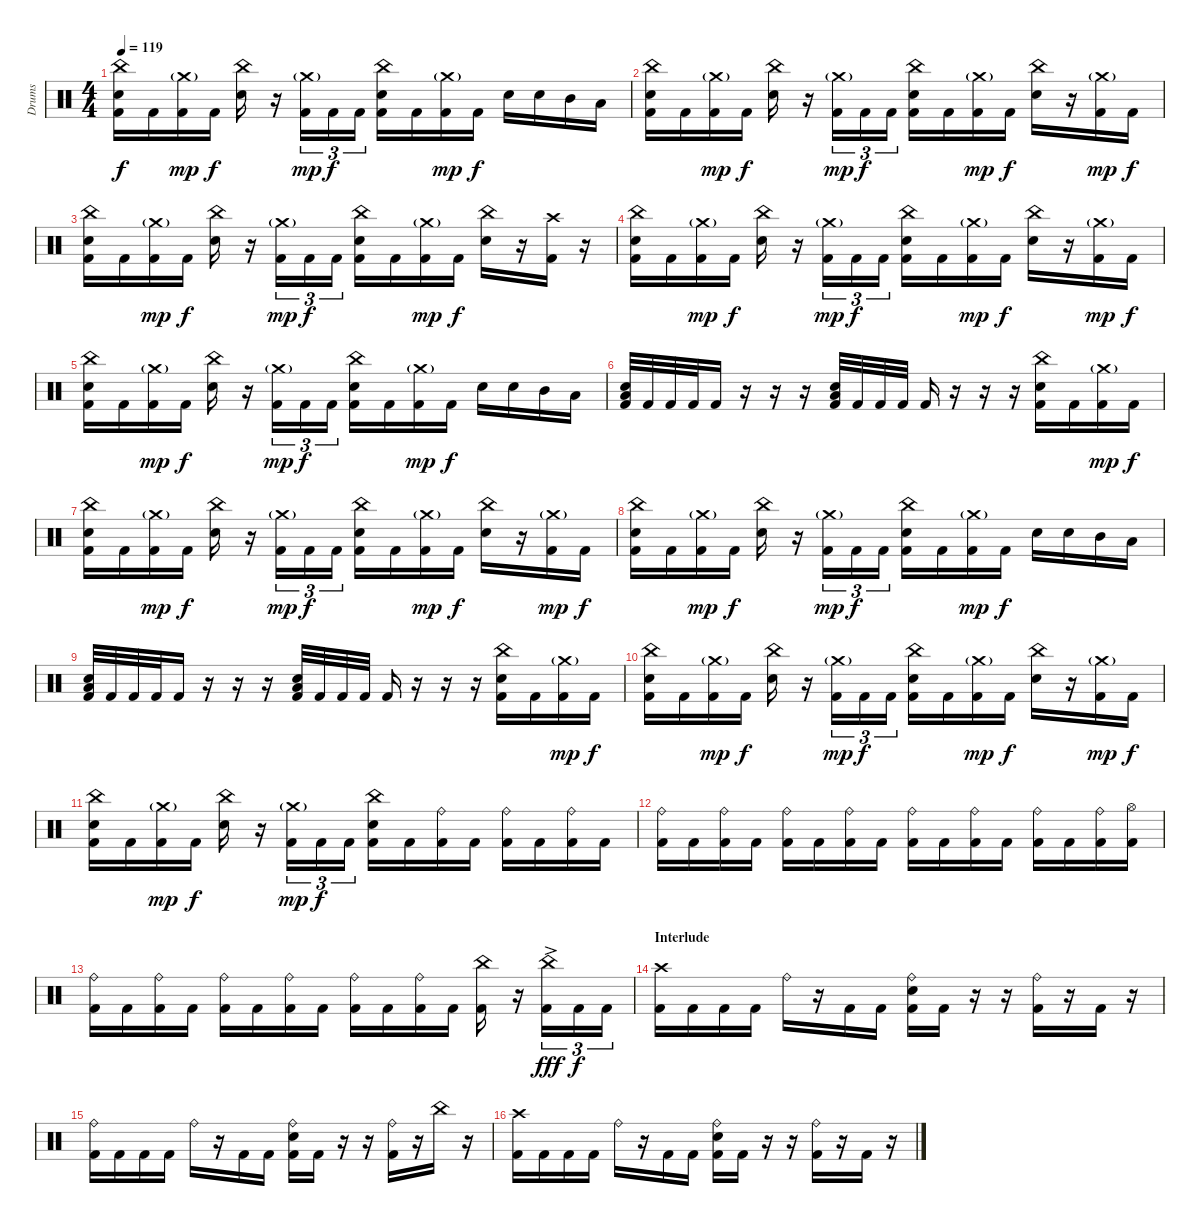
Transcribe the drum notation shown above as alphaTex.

\track ("Drums" "Drums") {instrument percussion}
\staff {score}
\articulation defaults
\ts (4 4)
\tempo 119
\clef neutral
\ks c
("China (hit)" "Electric Snare (hit)" "Kick (hit) 2").16{dy f} "Kick (hit) 2".16 ("Crash medium (hit)"{g} "Kick (hit) 2").16{dy mp} "Kick (hit) 2".16{dy f} ("China (hit)" "Electric Snare (hit)").16 r.16 ("Crash medium (hit)"{g} "Kick (hit) 2").16{tu (3 2) dy mp} "Kick (hit) 2".16{tu (3 2) dy f} "Kick (hit) 2".16{tu (3 2)} ("China (hit)" "Electric Snare (hit)" "Kick (hit) 2").16 "Kick (hit) 2".16 ("Crash medium (hit)"{g} "Kick (hit) 2").16{dy mp} "Kick (hit) 2".16{dy f} "Electric Snare (hit)".16 "Electric Snare (hit)".16 "Mid Tom (hit)".16 "Low Tom (hit)".16 |
("China (hit)" "Electric Snare (hit)" "Kick (hit) 2").16 "Kick (hit) 2".16 ("Crash medium (hit)"{g} "Kick (hit) 2").16{dy mp} "Kick (hit) 2".16{dy f} ("China (hit)" "Electric Snare (hit)").16 r.16 ("Crash medium (hit)"{g} "Kick (hit) 2").16{tu (3 2) dy mp} "Kick (hit) 2".16{tu (3 2) dy f} "Kick (hit) 2".16{tu (3 2)} ("China (hit)" "Electric Snare (hit)" "Kick (hit) 2").16 "Kick (hit) 2".16 ("Crash medium (hit)"{g} "Kick (hit) 2").16{dy mp} "Kick (hit) 2".16{dy f} ("China (hit)" "Electric Snare (hit)").16 r.16 ("Crash medium (hit)"{g} "Kick (hit) 2").16{dy mp} "Kick (hit) 2".16{dy f} |
("China (hit)" "Electric Snare (hit)" "Kick (hit) 2").16 "Kick (hit) 2".16 ("Crash medium (hit)"{g} "Kick (hit) 2").16{dy mp} "Kick (hit) 2".16{dy f} ("China (hit)" "Electric Snare (hit)").16 r.16 ("Crash medium (hit)"{g} "Kick (hit) 2").16{tu (3 2) dy mp} "Kick (hit) 2".16{tu (3 2) dy f} "Kick (hit) 2".16{tu (3 2)} ("China (hit)" "Electric Snare (hit)" "Kick (hit) 2").16 "Kick (hit) 2".16 ("Crash medium (hit)"{g} "Kick (hit) 2").16{dy mp} "Kick (hit) 2".16{dy f} ("China (hit)" "Electric Snare (hit)").16 r.16 ("Crash high (hit)" "Kick (hit) 2").16 r.16 |
("China (hit)" "Electric Snare (hit)" "Kick (hit) 2").16 "Kick (hit) 2".16 ("Crash medium (hit)"{g} "Kick (hit) 2").16{dy mp} "Kick (hit) 2".16{dy f} ("China (hit)" "Electric Snare (hit)").16 r.16 ("Crash medium (hit)"{g} "Kick (hit) 2").16{tu (3 2) dy mp} "Kick (hit) 2".16{tu (3 2) dy f} "Kick (hit) 2".16{tu (3 2)} ("China (hit)" "Electric Snare (hit)" "Kick (hit) 2").16 "Kick (hit) 2".16 ("Crash medium (hit)"{g} "Kick (hit) 2").16{dy mp} "Kick (hit) 2".16{dy f} ("China (hit)" "Electric Snare (hit)").16 r.16 ("Crash medium (hit)"{g} "Kick (hit) 2").16{dy mp} "Kick (hit) 2".16{dy f} |
("China (hit)" "Electric Snare (hit)" "Kick (hit) 2").16 "Kick (hit) 2".16 ("Crash medium (hit)"{g} "Kick (hit) 2").16{dy mp} "Kick (hit) 2".16{dy f} ("China (hit)" "Electric Snare (hit)").16 r.16 ("Crash medium (hit)"{g} "Kick (hit) 2").16{tu (3 2) dy mp} "Kick (hit) 2".16{tu (3 2) dy f} "Kick (hit) 2".16{tu (3 2)} ("China (hit)" "Electric Snare (hit)" "Kick (hit) 2").16 "Kick (hit) 2".16 ("Crash medium (hit)"{g} "Kick (hit) 2").16{dy mp} "Kick (hit) 2".16{dy f} "Electric Snare (hit)".16 "Electric Snare (hit)".16 "Mid Tom (hit)".16 "Low Tom (hit)".16 |
("Electric Snare (hit)" "Low Tom (hit)" "Kick (hit) 2").32 "Kick (hit) 2".32 "Kick (hit) 2".32 "Kick (hit) 2".32 "Kick (hit) 2".16 r.16 r.16 r.16 ("Electric Snare (hit)" "Low Tom (hit)" "Kick (hit) 2").32 "Kick (hit) 2".32 "Kick (hit) 2".32 "Kick (hit) 2".32 "Kick (hit) 2".16 r.16 r.16 r.16 ("China (hit)" "Electric Snare (hit)" "Kick (hit) 2").16 "Kick (hit) 2".16 ("Crash medium (hit)"{g} "Kick (hit) 2").16{dy mp} "Kick (hit) 2".16{dy f} |
("China (hit)" "Electric Snare (hit)" "Kick (hit) 2").16 "Kick (hit) 2".16 ("Crash medium (hit)"{g} "Kick (hit) 2").16{dy mp} "Kick (hit) 2".16{dy f} ("China (hit)" "Electric Snare (hit)").16 r.16 ("Crash medium (hit)"{g} "Kick (hit) 2").16{tu (3 2) dy mp} "Kick (hit) 2".16{tu (3 2) dy f} "Kick (hit) 2".16{tu (3 2)} ("China (hit)" "Electric Snare (hit)" "Kick (hit) 2").16 "Kick (hit) 2".16 ("Crash medium (hit)"{g} "Kick (hit) 2").16{dy mp} "Kick (hit) 2".16{dy f} ("China (hit)" "Electric Snare (hit)").16 r.16 ("Crash medium (hit)"{g} "Kick (hit) 2").16{dy mp} "Kick (hit) 2".16{dy f} |
("China (hit)" "Electric Snare (hit)" "Kick (hit) 2").16 "Kick (hit) 2".16 ("Crash medium (hit)"{g} "Kick (hit) 2").16{dy mp} "Kick (hit) 2".16{dy f} ("China (hit)" "Electric Snare (hit)").16 r.16 ("Crash medium (hit)"{g} "Kick (hit) 2").16{tu (3 2) dy mp} "Kick (hit) 2".16{tu (3 2) dy f} "Kick (hit) 2".16{tu (3 2)} ("China (hit)" "Electric Snare (hit)" "Kick (hit) 2").16 "Kick (hit) 2".16 ("Crash medium (hit)"{g} "Kick (hit) 2").16{dy mp} "Kick (hit) 2".16{dy f} "Electric Snare (hit)".16 "Electric Snare (hit)".16 "Mid Tom (hit)".16 "Low Tom (hit)".16 |
("Electric Snare (hit)" "Low Tom (hit)" "Kick (hit) 2").32 "Kick (hit) 2".32 "Kick (hit) 2".32 "Kick (hit) 2".32 "Kick (hit) 2".16 r.16 r.16 r.16 ("Electric Snare (hit)" "Low Tom (hit)" "Kick (hit) 2").32 "Kick (hit) 2".32 "Kick (hit) 2".32 "Kick (hit) 2".32 "Kick (hit) 2".16 r.16 r.16 r.16 ("China (hit)" "Electric Snare (hit)" "Kick (hit) 2").16 "Kick (hit) 2".16 ("Crash medium (hit)"{g} "Kick (hit) 2").16{dy mp} "Kick (hit) 2".16{dy f} |
("China (hit)" "Electric Snare (hit)" "Kick (hit) 2").16 "Kick (hit) 2".16 ("Crash medium (hit)"{g} "Kick (hit) 2").16{dy mp} "Kick (hit) 2".16{dy f} ("China (hit)" "Electric Snare (hit)").16 r.16 ("Crash medium (hit)"{g} "Kick (hit) 2").16{tu (3 2) dy mp} "Kick (hit) 2".16{tu (3 2) dy f} "Kick (hit) 2".16{tu (3 2)} ("China (hit)" "Electric Snare (hit)" "Kick (hit) 2").16 "Kick (hit) 2".16 ("Crash medium (hit)"{g} "Kick (hit) 2").16{dy mp} "Kick (hit) 2".16{dy f} ("China (hit)" "Electric Snare (hit)").16 r.16 ("Crash medium (hit)"{g} "Kick (hit) 2").16{dy mp} "Kick (hit) 2".16{dy f} |
("China (hit)" "Electric Snare (hit)" "Kick (hit) 2").16 "Kick (hit) 2".16 ("Crash medium (hit)"{g} "Kick (hit) 2").16{dy mp} "Kick (hit) 2".16{dy f} ("China (hit)" "Electric Snare (hit)").16 r.16 ("Crash medium (hit)"{g} "Kick (hit) 2").16{tu (3 2) dy mp} "Kick (hit) 2".16{tu (3 2) dy f} "Kick (hit) 2".16{tu (3 2)} ("China (hit)" "Electric Snare (hit)" "Kick (hit) 2").16 "Kick (hit) 2".16 ("Ride (bell)" "Kick (hit) 2").16 "Kick (hit) 2".16 ("Ride (bell)" "Kick (hit) 2").16 "Kick (hit) 2".16 ("Ride (bell)" "Kick (hit) 2").16 "Kick (hit) 2".16 |
("Ride (bell)" "Kick (hit) 2").16 "Kick (hit) 2".16 ("Ride (bell)" "Kick (hit) 2").16 "Kick (hit) 2".16 ("Ride (bell)" "Kick (hit) 2").16 "Kick (hit) 2".16 ("Ride (bell)" "Kick (hit) 2").16 "Kick (hit) 2".16 ("Ride (bell)" "Kick (hit) 2").16 "Kick (hit) 2".16 ("Ride (bell)" "Kick (hit) 2").16 "Kick (hit) 2".16 ("Ride (bell)" "Kick (hit) 2").16 "Kick (hit) 2".16 ("Ride (bell)" "Kick (hit) 2").16 ("Hi-Hat (open)" "Kick (hit) 2").16 |
("Ride (bell)" "Kick (hit) 2").16 "Kick (hit) 2".16 ("Ride (bell)" "Kick (hit) 2").16 "Kick (hit) 2".16 ("Ride (bell)" "Kick (hit) 2").16 "Kick (hit) 2".16 ("Ride (bell)" "Kick (hit) 2").16 "Kick (hit) 2".16 ("Ride (bell)" "Kick (hit) 2").16 "Kick (hit) 2".16 ("Ride (bell)" "Kick (hit) 2").16 "Kick (hit) 2".16 ("China (hit)" "Kick (hit) 2").16 r.16 ("China (hit)"{ac} "Kick (hit) 2").16{tu (3 2) dy fff} "Kick (hit) 2".16{tu (3 2) dy f} "Kick (hit) 2".16{tu (3 2)} |
\section ("" "Interlude")
("Crash high (hit)" "Kick (hit) 2").16 "Kick (hit) 2".16 "Kick (hit) 2".16 "Kick (hit) 2".16 "Ride (bell)".16 r.16 "Kick (hit) 2".16 "Kick (hit) 2".16 ("Ride (bell)" "Electric Snare (hit)" "Kick (hit) 2").16 "Kick (hit) 2".16 r.16 r.16 ("Ride (bell)" "Kick (hit) 2").16 r.16 "Kick (hit) 2".16 r.16 |
("Ride (bell)" "Kick (hit) 2").16 "Kick (hit) 2".16 "Kick (hit) 2".16 "Kick (hit) 2".16 "Ride (bell)".16 r.16 "Kick (hit) 2".16 "Kick (hit) 2".16 ("Ride (bell)" "Electric Snare (hit)" "Kick (hit) 2").16 "Kick (hit) 2".16 r.16 r.16 ("Ride (bell)" "Kick (hit) 2").16 r.16 "China (hit)".16 r.16 |
("Crash high (hit)" "Kick (hit) 2").16 "Kick (hit) 2".16 "Kick (hit) 2".16 "Kick (hit) 2".16 "Ride (bell)".16 r.16 "Kick (hit) 2".16 "Kick (hit) 2".16 ("Ride (bell)" "Electric Snare (hit)" "Kick (hit) 2").16 "Kick (hit) 2".16 r.16 r.16 ("Ride (bell)" "Kick (hit) 2").16 r.16 "Kick (hit) 2".16 r.16
